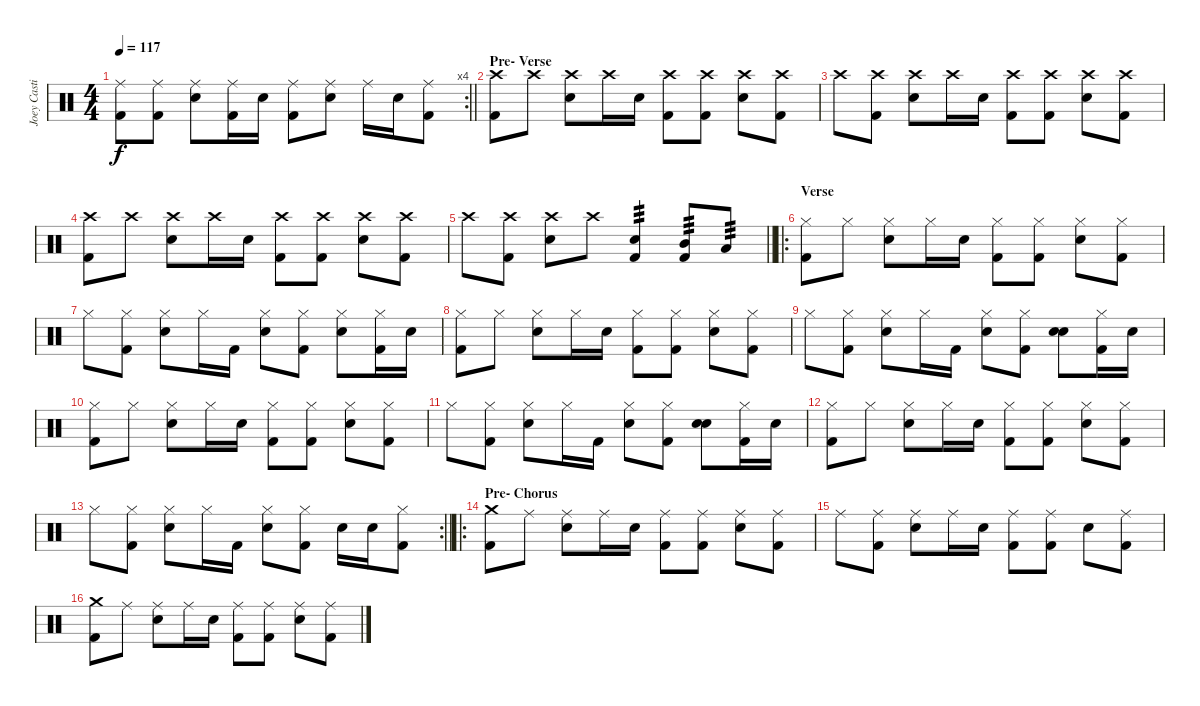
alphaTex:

\track ("Joey Castillo" "Joey Casti") {instrument percussion}
\staff {score}
\articulation defaults
\rc 4
\ts (4 4)
\tempo 117
\clef neutral
\barLineRight lightlight
\ks c
("Ride (middle)" "Kick (hit) 2").8{dy f} ("Ride (middle)" "Kick (hit) 2").8 ("Ride (middle)" "Snare (hit) 2").8 ("Ride (middle)" "Kick (hit) 2").16 "Snare (hit) 2".16 ("Ride (middle)" "Kick (hit) 2").8 ("Ride (middle)" "Snare (hit) 2").8 "Ride (middle)".16 "Snare (hit) 2".16 ("Ride (middle)" "Kick (hit) 2").8 |
\section ("" "Pre- Verse")
("Crash high (hit)" "Kick (hit) 2").8 "Crash high (hit)".8 ("Crash high (hit)" "Snare (hit) 2").8 "Crash high (hit)".16 "Snare (hit) 2".16 ("Crash high (hit)" "Kick (hit) 2").8 ("Crash high (hit)" "Kick (hit) 2").8 ("Crash high (hit)" "Snare (hit) 2").8 ("Crash high (hit)" "Kick (hit) 2").8 |
"Crash high (hit)".8 ("Crash high (hit)" "Kick (hit) 2").8 ("Crash high (hit)" "Snare (hit) 2").8 "Crash high (hit)".16 "Snare (hit) 2".16 ("Crash high (hit)" "Kick (hit) 2").8 ("Crash high (hit)" "Kick (hit) 2").8 ("Crash high (hit)" "Snare (hit) 2").8 ("Crash high (hit)" "Kick (hit) 2").8 |
("Crash high (hit)" "Kick (hit) 2").8 "Crash high (hit)".8 ("Crash high (hit)" "Snare (hit) 2").8 "Crash high (hit)".16 "Snare (hit) 2".16 ("Crash high (hit)" "Kick (hit) 2").8 ("Crash high (hit)" "Kick (hit) 2").8 ("Crash high (hit)" "Snare (hit) 2").8 ("Crash high (hit)" "Kick (hit) 2").8 |
\barLineRight lightlight "Crash high (hit)".8
("Crash high (hit)" "Kick (hit) 2").8 ("Crash high (hit)" "Snare (hit) 2").8 "Crash high (hit)".8 ("Snare (hit) 2" "Kick (hit) 2").4{tp 3} ("Mid Tom (hit)" "Kick (hit) 2").8{tp 3} "Low Floor Tom (hit)".8{tp 3} |
\ro
\section ("" "Verse")
("Hi-Hat (closed)" "Kick (hit) 2").8 "Hi-Hat (closed)".8 ("Hi-Hat (closed)" "Snare (hit) 2").8 "Hi-Hat (closed)".16 "Snare (hit) 2".16 ("Hi-Hat (closed)" "Kick (hit) 2").8 ("Hi-Hat (closed)" "Kick (hit) 2").8 ("Hi-Hat (closed)" "Snare (hit) 2").8 ("Hi-Hat (closed)" "Kick (hit) 2").8 |
"Hi-Hat (closed)".8 ("Hi-Hat (closed)" "Kick (hit) 2").8 ("Hi-Hat (closed)" "Snare (hit) 2").8 "Hi-Hat (closed)".16 "Kick (hit) 2".16 ("Hi-Hat (closed)" "Snare (hit) 2").8 ("Hi-Hat (closed)" "Kick (hit) 2").8 ("Hi-Hat (closed)" "Snare (hit) 2").8 ("Hi-Hat (closed)" "Kick (hit) 2").16 "Snare (hit) 2".16 |
("Hi-Hat (closed)" "Kick (hit) 2").8 "Hi-Hat (closed)".8 ("Hi-Hat (closed)" "Snare (hit) 2").8 "Hi-Hat (closed)".16 "Snare (hit) 2".16 ("Hi-Hat (closed)" "Kick (hit) 2").8 ("Hi-Hat (closed)" "Kick (hit) 2").8 ("Hi-Hat (closed)" "Snare (hit) 2").8 ("Hi-Hat (closed)" "Kick (hit) 2").8 |
"Hi-Hat (closed)".8 ("Hi-Hat (closed)" "Kick (hit) 2").8 ("Hi-Hat (closed)" "Snare (hit) 2").8 "Hi-Hat (closed)".16 "Kick (hit) 2".16 ("Hi-Hat (closed)" "Snare (hit) 2").8 ("Hi-Hat (closed)" "Kick (hit) 2").8 ("Snare (hit) 2" "Snare (hit) 2").8{bd 240} ("Hi-Hat (closed)" "Kick (hit) 2").16 "Snare (hit) 2".16 |
("Hi-Hat (closed)" "Kick (hit) 2").8 "Hi-Hat (closed)".8 ("Hi-Hat (closed)" "Snare (hit) 2").8 "Hi-Hat (closed)".16 "Snare (hit) 2".16 ("Hi-Hat (closed)" "Kick (hit) 2").8 ("Hi-Hat (closed)" "Kick (hit) 2").8 ("Hi-Hat (closed)" "Snare (hit) 2").8 ("Hi-Hat (closed)" "Kick (hit) 2").8 |
"Hi-Hat (closed)".8 ("Hi-Hat (closed)" "Kick (hit) 2").8 ("Hi-Hat (closed)" "Snare (hit) 2").8 "Hi-Hat (closed)".16 "Kick (hit) 2".16 ("Hi-Hat (closed)" "Snare (hit) 2").8 ("Hi-Hat (closed)" "Kick (hit) 2").8 ("Snare (hit) 2" "Snare (hit) 2").8{bd 240} ("Hi-Hat (closed)" "Kick (hit) 2").16 "Snare (hit) 2".16 |
("Hi-Hat (closed)" "Kick (hit) 2").8 "Hi-Hat (closed)".8 ("Hi-Hat (closed)" "Snare (hit) 2").8 "Hi-Hat (closed)".16 "Snare (hit) 2".16 ("Hi-Hat (closed)" "Kick (hit) 2").8 ("Hi-Hat (closed)" "Kick (hit) 2").8 ("Hi-Hat (closed)" "Snare (hit) 2").8 ("Hi-Hat (closed)" "Kick (hit) 2").8 |
\rc 2
\barLineRight lightlight "Hi-Hat (closed)".8
("Hi-Hat (closed)" "Kick (hit) 2").8 ("Hi-Hat (closed)" "Snare (hit) 2").8 "Hi-Hat (closed)".16 "Kick (hit) 2".16 ("Hi-Hat (closed)" "Snare (hit) 2").8 ("Hi-Hat (closed)" "Kick (hit) 2").8 "Snare (hit) 2".16 "Snare (hit) 2".16 ("Hi-Hat (closed)" "Kick (hit) 2").8 |
\ro
\section ("" "Pre- Chorus")
("Crash medium (hit)" "Kick (hit) 2").8 "Ride (middle)".8 ("Ride (middle)" "Snare (hit) 2").8 "Ride (middle)".16 "Snare (hit) 2".16 ("Ride (middle)" "Kick (hit) 2").8 ("Ride (middle)" "Kick (hit) 2").8 ("Ride (middle)" "Snare (hit) 2").8 ("Ride (middle)" "Kick (hit) 2").8 |
"Ride (middle)".8 ("Ride (middle)" "Kick (hit) 2").8 ("Ride (middle)" "Snare (hit) 2").8 "Ride (middle)".16 "Snare (hit) 2".16 ("Ride (middle)" "Kick (hit) 2").8 ("Ride (middle)" "Kick (hit) 2").8 "Snare (hit) 2".8 ("Ride (middle)" "Kick (hit) 2").8 |
("Crash medium (hit)" "Kick (hit) 2").8 "Ride (middle)".8 ("Ride (middle)" "Snare (hit) 2").8 "Ride (middle)".16 "Snare (hit) 2".16 ("Ride (middle)" "Kick (hit) 2").8 ("Ride (middle)" "Kick (hit) 2").8 ("Ride (middle)" "Snare (hit) 2").8 ("Ride (middle)" "Kick (hit) 2").8
